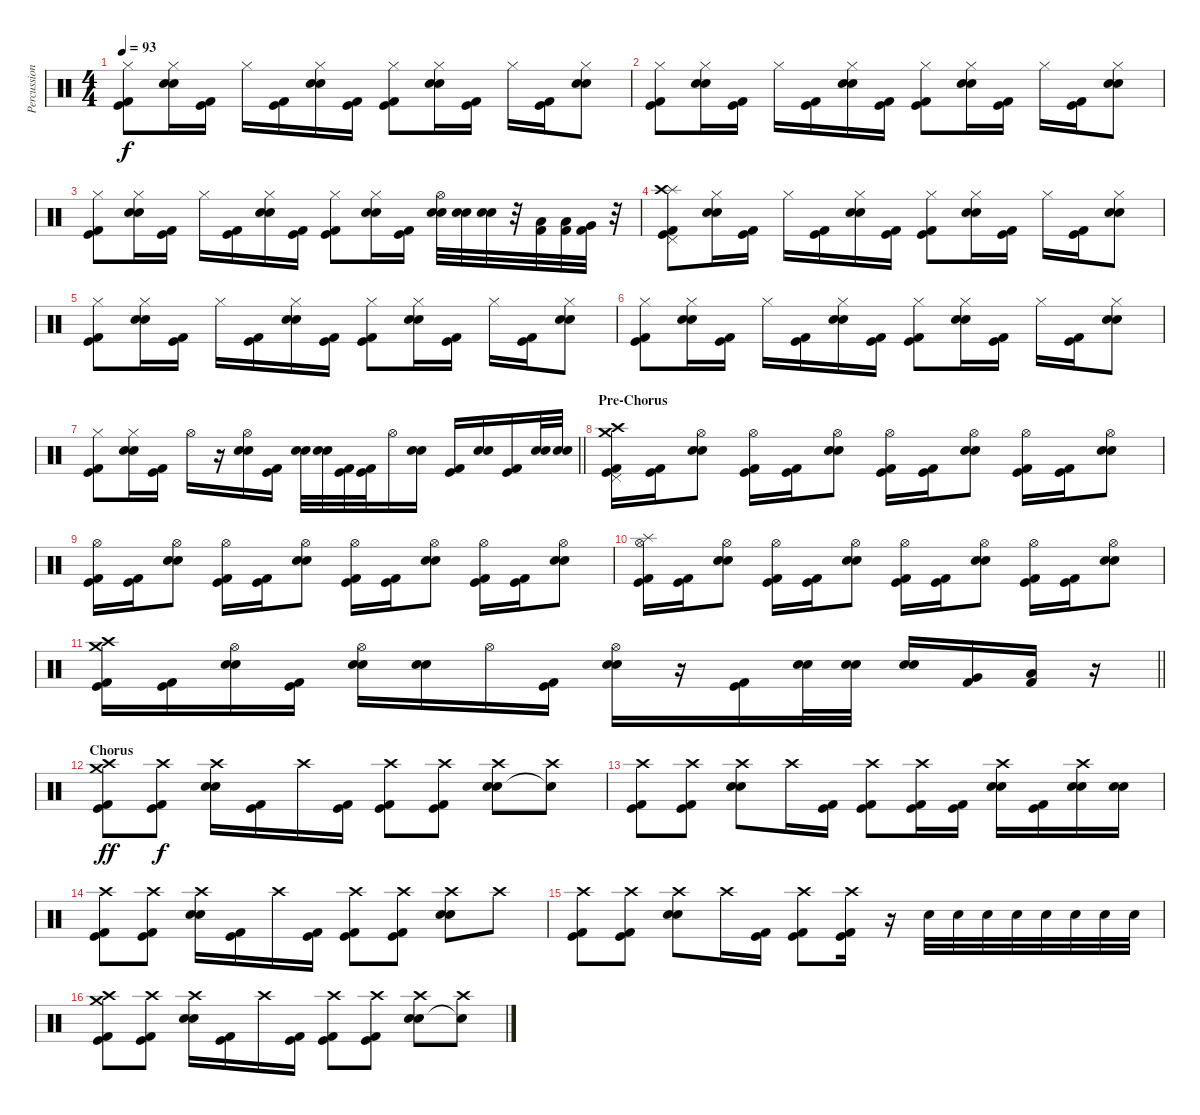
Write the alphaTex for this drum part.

\track ("Percussion" "Percussion") {instrument percussion}
\staff {score}
\articulation defaults
\ts (4 4)
\tempo 93
\clef neutral
\ks c
("Kick (hit) 2" "Kick (hit)" "Hi-Hat (closed)").8{dy f} ("Electric Snare (hit)" "Snare (hit) 2" "Hi-Hat (closed)").16 ("Kick (hit) 2" "Kick (hit)").16 "Hi-Hat (closed)".16 ("Kick (hit) 2" "Kick (hit)").16 ("Electric Snare (hit)" "Snare (hit) 2" "Hi-Hat (closed)").16 ("Kick (hit) 2" "Kick (hit)").16 ("Kick (hit) 2" "Kick (hit)" "Hi-Hat (closed)").8 ("Electric Snare (hit)" "Snare (hit) 2" "Hi-Hat (closed)").16 ("Kick (hit) 2" "Kick (hit)").16 "Hi-Hat (closed)".16 ("Kick (hit) 2" "Kick (hit)").16 ("Electric Snare (hit)" "Snare (hit) 2" "Hi-Hat (closed)").8 |
("Kick (hit) 2" "Kick (hit)" "Hi-Hat (closed)").8 ("Electric Snare (hit)" "Snare (hit) 2" "Hi-Hat (closed)").16 ("Kick (hit) 2" "Kick (hit)").16 "Hi-Hat (closed)".16 ("Kick (hit) 2" "Kick (hit)").16 ("Electric Snare (hit)" "Snare (hit) 2" "Hi-Hat (closed)").16 ("Kick (hit) 2" "Kick (hit)").16 ("Kick (hit) 2" "Kick (hit)" "Hi-Hat (closed)").8 ("Electric Snare (hit)" "Snare (hit) 2" "Hi-Hat (closed)").16 ("Kick (hit) 2" "Kick (hit)").16 "Hi-Hat (closed)".16 ("Kick (hit) 2" "Kick (hit)").16 ("Electric Snare (hit)" "Snare (hit) 2" "Hi-Hat (closed)").8 |
("Kick (hit) 2" "Kick (hit)" "Hi-Hat (closed)").8 ("Electric Snare (hit)" "Snare (hit) 2" "Hi-Hat (closed)").16 ("Kick (hit) 2" "Kick (hit)").16 "Hi-Hat (closed)".16 ("Kick (hit) 2" "Kick (hit)").16 ("Electric Snare (hit)" "Snare (hit) 2" "Hi-Hat (closed)").16 ("Kick (hit) 2" "Kick (hit)").16 ("Kick (hit) 2" "Kick (hit)" "Hi-Hat (closed)").8 ("Electric Snare (hit)" "Snare (hit) 2" "Hi-Hat (closed)").16 ("Kick (hit) 2" "Kick (hit)").16 ("Electric Snare (hit)" "Snare (hit) 2" "Hi-Hat (open)").32 ("Electric Snare (hit)" "Snare (hit) 2").32 ("Electric Snare (hit)" "Snare (hit) 2").32 r.32 ("Kick (hit) 2" "Low Tom (hit)").32 ("Kick (hit) 2" "Low Tom (hit)").32 ("Kick (hit) 2" "Very Low Tom (hit)").32 r.32 |
("Kick (hit) 2" "Kick (hit)" "Pedal Hi-Hat (hit)" "Splash (hit)" "Crash high (hit)").8 ("Electric Snare (hit)" "Snare (hit) 2" "Hi-Hat (closed)").16 ("Kick (hit) 2" "Kick (hit)").16 "Hi-Hat (closed)".16 ("Kick (hit) 2" "Kick (hit)").16 ("Electric Snare (hit)" "Snare (hit) 2" "Hi-Hat (closed)").16 ("Kick (hit) 2" "Kick (hit)").16 ("Kick (hit) 2" "Kick (hit)" "Hi-Hat (closed)").8 ("Electric Snare (hit)" "Snare (hit) 2" "Hi-Hat (closed)").16 ("Kick (hit) 2" "Kick (hit)").16 "Hi-Hat (closed)".16 ("Kick (hit) 2" "Kick (hit)").16 ("Electric Snare (hit)" "Snare (hit) 2" "Hi-Hat (closed)").8 |
("Kick (hit) 2" "Kick (hit)" "Hi-Hat (closed)").8 ("Electric Snare (hit)" "Snare (hit) 2" "Hi-Hat (closed)").16 ("Kick (hit) 2" "Kick (hit)").16 "Hi-Hat (closed)".16 ("Kick (hit) 2" "Kick (hit)").16 ("Electric Snare (hit)" "Snare (hit) 2" "Hi-Hat (closed)").16 ("Kick (hit) 2" "Kick (hit)").16 ("Kick (hit) 2" "Kick (hit)" "Hi-Hat (closed)").8 ("Electric Snare (hit)" "Snare (hit) 2" "Hi-Hat (closed)").16 ("Kick (hit) 2" "Kick (hit)").16 "Hi-Hat (closed)".16 ("Kick (hit) 2" "Kick (hit)").16 ("Electric Snare (hit)" "Snare (hit) 2" "Hi-Hat (closed)").8 |
("Kick (hit) 2" "Kick (hit)" "Hi-Hat (closed)").8 ("Electric Snare (hit)" "Snare (hit) 2" "Hi-Hat (closed)").16 ("Kick (hit) 2" "Kick (hit)").16 "Hi-Hat (closed)".16 ("Kick (hit) 2" "Kick (hit)").16 ("Electric Snare (hit)" "Snare (hit) 2" "Hi-Hat (closed)").16 ("Kick (hit) 2" "Kick (hit)").16 ("Kick (hit) 2" "Kick (hit)" "Hi-Hat (closed)").8 ("Electric Snare (hit)" "Snare (hit) 2" "Hi-Hat (closed)").16 ("Kick (hit) 2" "Kick (hit)").16 "Hi-Hat (closed)".16 ("Kick (hit) 2" "Kick (hit)").16 ("Electric Snare (hit)" "Snare (hit) 2" "Hi-Hat (closed)").8 |
\barLineRight lightlight
("Kick (hit) 2" "Kick (hit)" "Hi-Hat (closed)").8 ("Electric Snare (hit)" "Snare (hit) 2" "Hi-Hat (closed)").16 ("Kick (hit) 2" "Kick (hit)").16 "Hi-Hat (open)".16 r.16 ("Electric Snare (hit)" "Snare (hit) 2" "Hi-Hat (open)").16 ("Kick (hit) 2" "Kick (hit)").16 ("Electric Snare (hit)" "Snare (hit) 2").32 ("Electric Snare (hit)" "Snare (hit) 2").32 ("Kick (hit) 2" "Kick (hit)").32 ("Kick (hit) 2" "Kick (hit)").32 "Hi-Hat (open)".16 ("Electric Snare (hit)" "Snare (hit) 2").16 ("Kick (hit) 2" "Kick (hit)").16 ("Electric Snare (hit)" "Snare (hit) 2").16 ("Kick (hit) 2" "Kick (hit)").16 ("Electric Snare (hit)" "Snare (hit) 2").32 ("Electric Snare (hit)" "Snare (hit) 2").32 |
\section ("" "Pre-Chorus")
("Kick (hit) 2" "Kick (hit)" "Pedal Hi-Hat (hit)" "Crash medium (hit)" "Crash high (hit)").16 ("Kick (hit) 2" "Kick (hit)").16 ("Electric Snare (hit)" "Snare (hit) 2" "Hi-Hat (open)").8 ("Kick (hit) 2" "Kick (hit)" "Hi-Hat (open)").16 ("Kick (hit) 2" "Kick (hit)").16 ("Electric Snare (hit)" "Snare (hit) 2" "Hi-Hat (open)").8 ("Kick (hit) 2" "Kick (hit)" "Hi-Hat (open)").16 ("Kick (hit) 2" "Kick (hit)").16 ("Electric Snare (hit)" "Snare (hit) 2" "Hi-Hat (open)").8 ("Kick (hit) 2" "Kick (hit)" "Hi-Hat (open)").16 ("Kick (hit) 2" "Kick (hit)").16 ("Electric Snare (hit)" "Snare (hit) 2" "Hi-Hat (open)").8 |
("Kick (hit) 2" "Kick (hit)" "Hi-Hat (open)").16 ("Kick (hit) 2" "Kick (hit)").16 ("Electric Snare (hit)" "Snare (hit) 2" "Hi-Hat (open)").8 ("Kick (hit) 2" "Kick (hit)" "Hi-Hat (open)").16 ("Kick (hit) 2" "Kick (hit)").16 ("Electric Snare (hit)" "Snare (hit) 2" "Hi-Hat (open)").8 ("Kick (hit) 2" "Kick (hit)" "Hi-Hat (open)").16 ("Kick (hit) 2" "Kick (hit)").16 ("Electric Snare (hit)" "Snare (hit) 2" "Hi-Hat (open)").8 ("Kick (hit) 2" "Kick (hit)" "Hi-Hat (open)").16 ("Kick (hit) 2" "Kick (hit)").16 ("Electric Snare (hit)" "Snare (hit) 2" "Hi-Hat (open)").8 |
("Kick (hit) 2" "Kick (hit)" "Hi-Hat (open)" "Splash (hit)").16 ("Kick (hit) 2" "Kick (hit)").16 ("Electric Snare (hit)" "Snare (hit) 2" "Hi-Hat (open)").8 ("Kick (hit) 2" "Kick (hit)" "Hi-Hat (open)").16 ("Kick (hit) 2" "Kick (hit)").16 ("Electric Snare (hit)" "Snare (hit) 2" "Hi-Hat (open)").8 ("Kick (hit) 2" "Kick (hit)" "Hi-Hat (open)").16 ("Kick (hit) 2" "Kick (hit)").16 ("Electric Snare (hit)" "Snare (hit) 2" "Hi-Hat (open)").8 ("Kick (hit) 2" "Kick (hit)" "Hi-Hat (open)").16 ("Kick (hit) 2" "Kick (hit)").16 ("Electric Snare (hit)" "Snare (hit) 2" "Hi-Hat (open)").8 |
\barLineRight lightlight
("Kick (hit) 2" "Kick (hit)" "Crash medium (hit)" "Crash high (hit)").16 ("Kick (hit) 2" "Kick (hit)").16 ("Electric Snare (hit)" "Snare (hit) 2" "Hi-Hat (open)").16 ("Kick (hit) 2" "Kick (hit)").16 ("Electric Snare (hit)" "Snare (hit) 2" "Hi-Hat (open)").16 ("Electric Snare (hit)" "Snare (hit) 2").16 "Hi-Hat (open)".16 ("Kick (hit) 2" "Kick (hit)").16 ("Electric Snare (hit)" "Snare (hit) 2" "Hi-Hat (open)").16 r.16 ("Kick (hit) 2" "Kick (hit)").16 ("Electric Snare (hit)" "Snare (hit) 2").32 ("Electric Snare (hit)" "Snare (hit) 2").32 ("Electric Snare (hit)" "Snare (hit) 2").16 ("Kick (hit) 2" "Very Low Tom (hit)").16 ("Kick (hit) 2" "Low Floor Tom (hit)").16 r.16 |
\section ("" "Chorus")
("Kick (hit) 2" "Kick (hit)" "Crash high (hit)" "Crash medium (hit)").8{dy ff} ("Kick (hit) 2" "Kick (hit)" "Crash high (hit)").8{dy f} ("Electric Snare (hit)" "Snare (hit) 2" "Crash high (hit)").16 ("Kick (hit) 2" "Kick (hit)").16 "Crash high (hit)".16 ("Kick (hit) 2" "Kick (hit)").16 ("Kick (hit) 2" "Kick (hit)" "Crash high (hit)").8 ("Kick (hit) 2" "Kick (hit)" "Crash high (hit)").8 ("Electric Snare (hit)" "Snare (hit) 2" "Crash high (hit)").8 ("Crash high (hit)" "Snare (hit)"{t}).8 |
("Kick (hit) 2" "Kick (hit)" "Crash high (hit)").8 ("Kick (hit) 2" "Kick (hit)" "Crash high (hit)").8 ("Electric Snare (hit)" "Snare (hit) 2" "Crash high (hit)").8 "Crash high (hit)".16 ("Kick (hit) 2" "Kick (hit)").16 ("Kick (hit) 2" "Kick (hit)" "Crash high (hit)").8 ("Kick (hit) 2" "Kick (hit)" "Crash high (hit)").16 ("Kick (hit) 2" "Kick (hit)").16 ("Electric Snare (hit)" "Snare (hit) 2" "Crash high (hit)").16 ("Kick (hit) 2" "Kick (hit)").16 ("Electric Snare (hit)" "Snare (hit) 2" "Crash high (hit)").16 ("Electric Snare (hit)" "Snare (hit) 2").16 |
("Kick (hit) 2" "Kick (hit)" "Crash high (hit)").8 ("Kick (hit) 2" "Kick (hit)" "Crash high (hit)").8 ("Electric Snare (hit)" "Snare (hit) 2" "Crash high (hit)").16 ("Kick (hit) 2" "Kick (hit)").16 "Crash high (hit)".16 ("Kick (hit) 2" "Kick (hit)").16 ("Kick (hit) 2" "Kick (hit)" "Crash high (hit)").8 ("Kick (hit) 2" "Kick (hit)" "Crash high (hit)").8 ("Electric Snare (hit)" "Snare (hit) 2" "Crash high (hit)").8 "Crash high (hit)".8 |
("Kick (hit) 2" "Kick (hit)" "Crash high (hit)").8 ("Kick (hit) 2" "Kick (hit)" "Crash high (hit)").8 ("Electric Snare (hit)" "Snare (hit) 2" "Crash high (hit)").8 "Crash high (hit)".16 ("Kick (hit) 2" "Kick (hit)").16 ("Kick (hit) 2" "Kick (hit)" "Crash high (hit)").8 ("Kick (hit) 2" "Kick (hit)" "Crash high (hit)").16 r.16 "Snare (hit) 2".32 "Snare (hit) 2".32 "Snare (hit) 2".32 "Snare (hit) 2".32 "Snare (hit) 2".32 "Snare (hit) 2".32 "Snare (hit) 2".32 "Snare (hit) 2".32 |
("Kick (hit) 2" "Kick (hit)" "Crash high (hit)" "Crash medium (hit)").8 ("Kick (hit) 2" "Kick (hit)" "Crash high (hit)").8 ("Electric Snare (hit)" "Snare (hit) 2" "Crash high (hit)").16 ("Kick (hit) 2" "Kick (hit)").16 "Crash high (hit)".16 ("Kick (hit) 2" "Kick (hit)").16 ("Kick (hit) 2" "Kick (hit)" "Crash high (hit)").8 ("Kick (hit) 2" "Kick (hit)" "Crash high (hit)").8 ("Electric Snare (hit)" "Snare (hit) 2" "Crash high (hit)").8 ("Crash high (hit)" "Snare (hit)"{t}).8
